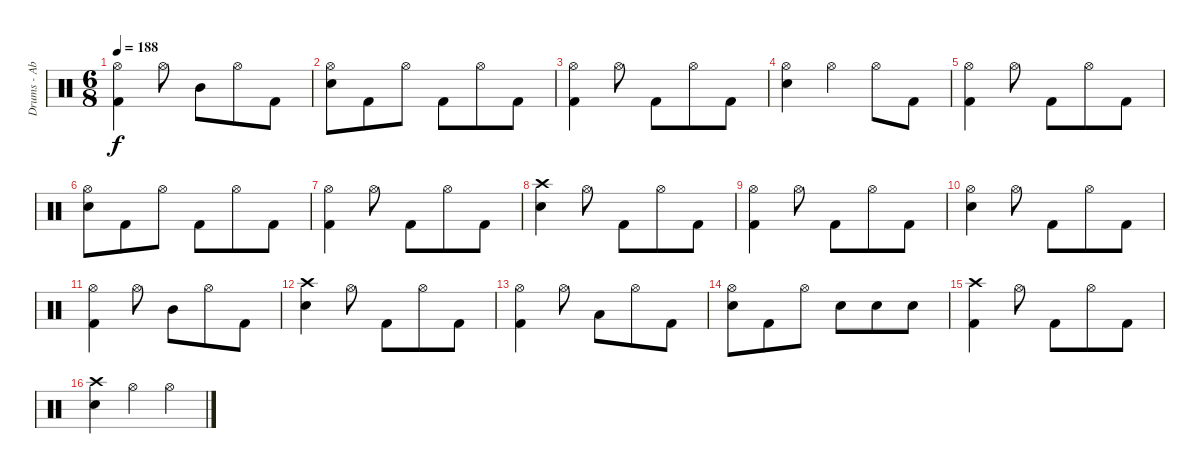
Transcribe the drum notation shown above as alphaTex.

\track ("Drums - Abe Cunningham" "Drums - Ab") {instrument percussion}
\staff {score}
\articulation defaults
\ts (6 8)
\tempo 188
\clef neutral
\ks c
("Hi-Hat (open)" "Kick (hit) 2").4{dy f} "Hi-Hat (open)".8 "Mid Tom (hit)".8 "Hi-Hat (open)".8 "Kick (hit) 2".8 |
("Hi-Hat (open)" "Electric Snare (hit)").8 "Kick (hit) 2".8 "Hi-Hat (open)".8 "Kick (hit) 2".8 "Hi-Hat (open)".8 "Kick (hit) 2".8 |
("Hi-Hat (open)" "Kick (hit) 2").4 "Hi-Hat (open)".8 "Kick (hit) 2".8 "Hi-Hat (open)".8 "Kick (hit) 2".8 |
("Hi-Hat (open)" "Electric Snare (hit)").4 "Hi-Hat (open)".4 "Hi-Hat (open)".8 "Kick (hit) 2".8 |
("Hi-Hat (open)" "Kick (hit) 2").4 "Hi-Hat (open)".8 "Kick (hit) 2".8 "Hi-Hat (open)".8 "Kick (hit) 2".8 |
("Hi-Hat (open)" "Electric Snare (hit)").8 "Kick (hit) 2".8 "Hi-Hat (open)".8 "Kick (hit) 2".8 "Hi-Hat (open)".8 "Kick (hit) 2".8 |
("Hi-Hat (open)" "Kick (hit) 2").4 "Hi-Hat (open)".8 "Kick (hit) 2".8 "Hi-Hat (open)".8 "Kick (hit) 2".8 |
("Crash high (hit)" "Electric Snare (hit)").4 "Hi-Hat (open)".8 "Kick (hit) 2".8 "Hi-Hat (open)".8 "Kick (hit) 2".8 |
("Hi-Hat (open)" "Kick (hit) 2").4 "Hi-Hat (open)".8 "Kick (hit) 2".8 "Hi-Hat (open)".8 "Kick (hit) 2".8 |
("Hi-Hat (open)" "Electric Snare (hit)").4 "Hi-Hat (open)".8 "Kick (hit) 2".8 "Hi-Hat (open)".8 "Kick (hit) 2".8 |
("Hi-Hat (open)" "Kick (hit) 2").4 "Hi-Hat (open)".8 "Mid Tom (hit)".8 "Hi-Hat (open)".8 "Kick (hit) 2".8 |
("Crash high (hit)" "Electric Snare (hit)").4 "Hi-Hat (open)".8 "Kick (hit) 2".8 "Hi-Hat (open)".8 "Kick (hit) 2".8 |
("Hi-Hat (open)" "Kick (hit) 2").4 "Hi-Hat (open)".8 "Low Tom (hit)".8 "Hi-Hat (open)".8 "Kick (hit) 2".8 |
("Hi-Hat (open)" "Electric Snare (hit)").8 "Kick (hit) 2".8 "Hi-Hat (open)".8 "Electric Snare (hit)".8 "Electric Snare (hit)".8 "Electric Snare (hit)".8 |
("Crash high (hit)" "Kick (hit) 2").4 "Hi-Hat (open)".8 "Kick (hit) 2".8 "Hi-Hat (open)".8 "Kick (hit) 2".8 |
("Crash high (hit)" "Electric Snare (hit)").4 "Hi-Hat (open)".4 "Hi-Hat (open)".4
